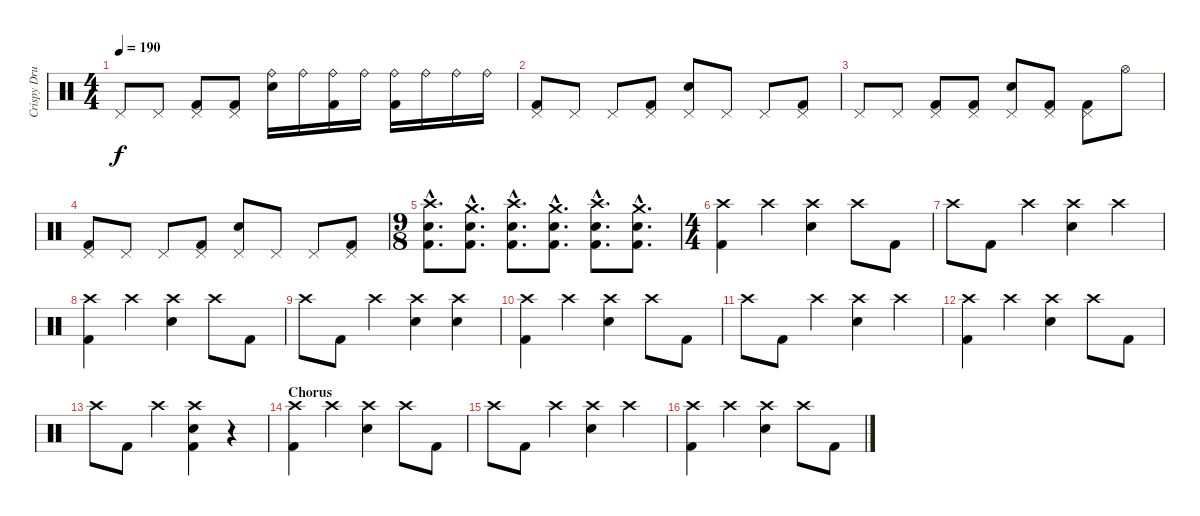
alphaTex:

\track ("Crispy Drums" "Crispy Dru") {instrument percussion}
\staff {score}
\articulation defaults
\ts (4 4)
\tempo 190
\clef neutral
\ks c "Pedal Hi-Hat (hit)".8{dy f} "Pedal Hi-Hat (hit)".8
("Pedal Hi-Hat (hit)" "Kick (hit) 2").8 ("Pedal Hi-Hat (hit)" "Kick (hit) 2").8 ("Ride (bell)" "Electric Snare (hit)").16 "Ride (bell)".16 ("Ride (bell)" "Kick (hit) 2").16 "Ride (bell)".16 ("Ride (bell)" "Kick (hit) 2").16 "Ride (bell)".16 "Ride (bell)".16 "Ride (bell)".16 |
("Pedal Hi-Hat (hit)" "Kick (hit) 2").8 "Pedal Hi-Hat (hit)".8 "Pedal Hi-Hat (hit)".8 ("Pedal Hi-Hat (hit)" "Kick (hit) 2").8 ("Pedal Hi-Hat (hit)" "Electric Snare (hit)").8 "Pedal Hi-Hat (hit)".8 "Pedal Hi-Hat (hit)".8 ("Pedal Hi-Hat (hit)" "Kick (hit) 2").8 |
"Pedal Hi-Hat (hit)".8 "Pedal Hi-Hat (hit)".8 ("Pedal Hi-Hat (hit)" "Kick (hit) 2").8 ("Pedal Hi-Hat (hit)" "Kick (hit) 2").8 ("Pedal Hi-Hat (hit)" "Electric Snare (hit)").8 ("Pedal Hi-Hat (hit)" "Kick (hit) 2").8 ("Pedal Hi-Hat (hit)" "Kick (hit) 2").8 "Hi-Hat (open)".8 |
("Pedal Hi-Hat (hit)" "Kick (hit) 2").8 "Pedal Hi-Hat (hit)".8 "Pedal Hi-Hat (hit)".8 ("Pedal Hi-Hat (hit)" "Kick (hit) 2").8 ("Pedal Hi-Hat (hit)" "Electric Snare (hit)").8 "Pedal Hi-Hat (hit)".8 "Pedal Hi-Hat (hit)".8 ("Pedal Hi-Hat (hit)" "Kick (hit) 2").8 |
\ts (9 8)
("Crash high (hit)"{hac} "Electric Snare (hit)"{hac} "Kick (hit) 2"{hac}).8{d} ("Crash medium (hit)"{hac} "Electric Snare (hit)"{hac} "Kick (hit) 2"{hac}).8{d} ("Crash high (hit)"{hac} "Electric Snare (hit)"{hac} "Kick (hit) 2"{hac}).8{d} ("Crash medium (hit)"{hac} "Electric Snare (hit)"{hac} "Kick (hit) 2"{hac}).8{d} ("Crash high (hit)"{hac} "Electric Snare (hit)"{hac} "Kick (hit) 2"{hac}).8{d} ("Crash medium (hit)"{hac} "Electric Snare (hit)"{hac} "Kick (hit) 2"{hac}).8{d} |
\ts (4 4)
("Crash high (hit)" "Kick (hit) 2").4 "Crash high (hit)".4 ("Crash high (hit)" "Electric Snare (hit)").4 "Crash high (hit)".8 "Kick (hit) 2".8 |
"Crash high (hit)".8 "Kick (hit) 2".8 "Crash high (hit)".4 ("Crash high (hit)" "Electric Snare (hit)").4 "Crash high (hit)".4 |
("Crash high (hit)" "Kick (hit) 2").4 "Crash high (hit)".4 ("Crash high (hit)" "Electric Snare (hit)").4 "Crash high (hit)".8 "Kick (hit) 2".8 |
"Crash high (hit)".8 "Kick (hit) 2".8 "Crash high (hit)".4 ("Crash high (hit)" "Electric Snare (hit)").4 ("Crash high (hit)" "Electric Snare (hit)").4 |
("Crash high (hit)" "Kick (hit) 2").4 "Crash high (hit)".4 ("Crash high (hit)" "Electric Snare (hit)").4 "Crash high (hit)".8 "Kick (hit) 2".8 |
"Crash high (hit)".8 "Kick (hit) 2".8 "Crash high (hit)".4 ("Crash high (hit)" "Electric Snare (hit)").4 "Crash high (hit)".4 |
("Crash high (hit)" "Kick (hit) 2").4 "Crash high (hit)".4 ("Crash high (hit)" "Electric Snare (hit)").4 "Crash high (hit)".8 "Kick (hit) 2".8 |
"Crash high (hit)".8 "Kick (hit) 2".8 "Crash high (hit)".4 ("Crash high (hit)" "Electric Snare (hit)" "Kick (hit) 2").4 r.4 |
\section ("" "Chorus")
("Crash high (hit)" "Kick (hit) 2").4 "Crash high (hit)".4 ("Crash high (hit)" "Electric Snare (hit)").4 "Crash high (hit)".8 "Kick (hit) 2".8 |
"Crash high (hit)".8 "Kick (hit) 2".8 "Crash high (hit)".4 ("Crash high (hit)" "Electric Snare (hit)").4 "Crash high (hit)".4 |
("Crash high (hit)" "Kick (hit) 2").4 "Crash high (hit)".4 ("Crash high (hit)" "Electric Snare (hit)").4 "Crash high (hit)".8 "Kick (hit) 2".8
